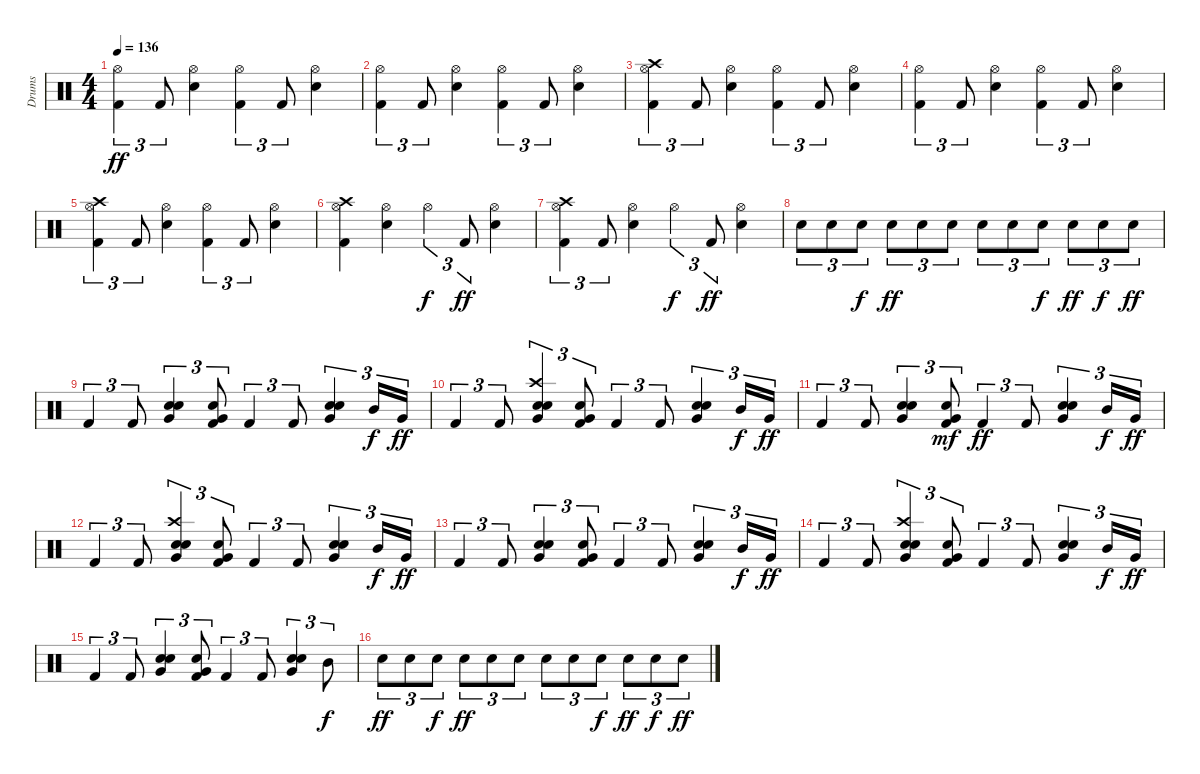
\track ("Drums" "Drums") {instrument percussion}
\staff {score}
\articulation defaults
\ts (4 4)
\tempo 136
\clef neutral
\ks c
("Kick (hit) 2" "Hi-Hat (open)").4{tu (3 2) dy ff} "Kick (hit) 2".8{tu (3 2)} ("Snare (hit) 2" "Hi-Hat (open)").4 ("Hi-Hat (open)" "Kick (hit) 2").4{tu (3 2)} "Kick (hit) 2".8{tu (3 2)} ("Snare (hit) 2" "Hi-Hat (open)").4 |
("Kick (hit) 2" "Hi-Hat (open)").4{tu (3 2)} "Kick (hit) 2".8{tu (3 2)} ("Snare (hit) 2" "Hi-Hat (open)").4 ("Hi-Hat (open)" "Kick (hit) 2").4{tu (3 2)} "Kick (hit) 2".8{tu (3 2)} ("Snare (hit) 2" "Hi-Hat (open)").4 |
("Kick (hit) 2" "Crash high (hit)" "Hi-Hat (open)").4{tu (3 2)} "Kick (hit) 2".8{tu (3 2)} ("Hi-Hat (open)" "Snare (hit) 2").4 ("Kick (hit) 2" "Hi-Hat (open)").4{tu (3 2)} "Kick (hit) 2".8{tu (3 2)} ("Hi-Hat (open)" "Snare (hit) 2").4 |
("Kick (hit) 2" "Hi-Hat (open)").4{tu (3 2)} "Kick (hit) 2".8{tu (3 2)} ("Snare (hit) 2" "Hi-Hat (open)").4 ("Hi-Hat (open)" "Kick (hit) 2").4{tu (3 2)} "Kick (hit) 2".8{tu (3 2)} ("Snare (hit) 2" "Hi-Hat (open)").4 |
("Kick (hit) 2" "Crash high (hit)" "Hi-Hat (open)").4{tu (3 2)} "Kick (hit) 2".8{tu (3 2)} ("Hi-Hat (open)" "Snare (hit) 2").4 ("Kick (hit) 2" "Hi-Hat (open)").4{tu (3 2)} "Kick (hit) 2".8{tu (3 2)} ("Hi-Hat (open)" "Snare (hit) 2").4 |
("Hi-Hat (open)" "Crash high (hit)" "Kick (hit) 2").4 ("Hi-Hat (open)" "Snare (hit) 2").4 "Hi-Hat (open)".4{tu (3 2) dy f} "Kick (hit) 2".8{tu (3 2) dy ff} ("Hi-Hat (open)" "Snare (hit) 2").4 |
("Hi-Hat (open)" "Crash high (hit)" "Kick (hit) 2").4{tu (3 2)} "Kick (hit) 2".8{tu (3 2)} ("Snare (hit) 2" "Hi-Hat (open)").4 "Hi-Hat (open)".4{tu (3 2) dy f} "Kick (hit) 2".8{tu (3 2) dy ff} ("Snare (hit) 2" "Hi-Hat (open)").4 |
"Snare (hit) 2".8{tu (3 2)} "Snare (hit) 2".8{tu (3 2)} "Snare (hit) 2".8{tu (3 2) dy f} "Snare (hit) 2".8{tu (3 2) dy ff} "Snare (hit) 2".8{tu (3 2)} "Snare (hit) 2".8{tu (3 2)} "Snare (hit) 2".8{tu (3 2)} "Snare (hit) 2".8{tu (3 2)} "Snare (hit) 2".8{tu (3 2) dy f} "Snare (hit) 2".8{tu (3 2) dy ff} "Snare (hit) 2".8{tu (3 2) dy f} "Snare (hit) 2".8{tu (3 2) dy ff} |
"Kick (hit) 2".4{tu (3 2)} "Kick (hit) 2".8{tu (3 2)} ("Snare (hit) 2" "Hand Clap (hit)" "Very Low Tom (hit)").4{tu (3 2)} ("Kick (hit) 2" "Hand Clap (hit)" "Very Low Tom (hit)").8{tu (3 2)} "Kick (hit) 2".4{tu (3 2)} "Kick (hit) 2".8{tu (3 2)} ("Snare (hit) 2" "Hand Clap (hit)" "Very Low Tom (hit)").4{tu (3 2)} "Mid Tom (hit)".16{tu (3 2) dy f} "Very Low Tom (hit)".16{tu (3 2) dy ff} |
"Kick (hit) 2".4{tu (3 2)} "Kick (hit) 2".8{tu (3 2)} ("Snare (hit) 2" "Very Low Tom (hit)" "Crash high (hit)" "Hand Clap (hit)").4{tu (3 2)} ("Kick (hit) 2" "Hand Clap (hit)" "Very Low Tom (hit)").8{tu (3 2)} "Kick (hit) 2".4{tu (3 2)} "Kick (hit) 2".8{tu (3 2)} ("Hand Clap (hit)" "Snare (hit) 2" "Very Low Tom (hit)").4{tu (3 2)} "Mid Tom (hit)".16{tu (3 2) dy f} "Very Low Tom (hit)".16{tu (3 2) dy ff} |
"Kick (hit) 2".4{tu (3 2)} "Kick (hit) 2".8{tu (3 2)} ("Very Low Tom (hit)" "Hand Clap (hit)" "Snare (hit) 2").4{tu (3 2)} ("Hand Clap (hit)" "Very Low Tom (hit)" "Kick (hit) 2").8{tu (3 2) dy mf} "Kick (hit) 2".4{tu (3 2) dy ff} "Kick (hit) 2".8{tu (3 2)} ("Snare (hit) 2" "Hand Clap (hit)" "Very Low Tom (hit)").4{tu (3 2)} "Mid Tom (hit)".16{tu (3 2) dy f} "Very Low Tom (hit)".16{tu (3 2) dy ff} |
"Kick (hit) 2".4{tu (3 2)} "Kick (hit) 2".8{tu (3 2)} ("Snare (hit) 2" "Crash high (hit)" "Very Low Tom (hit)" "Hand Clap (hit)").4{tu (3 2)} ("Hand Clap (hit)" "Kick (hit) 2" "Very Low Tom (hit)").8{tu (3 2)} "Kick (hit) 2".4{tu (3 2)} "Kick (hit) 2".8{tu (3 2)} ("Snare (hit) 2" "Hand Clap (hit)" "Very Low Tom (hit)").4{tu (3 2)} "Mid Tom (hit)".16{tu (3 2) dy f} "Very Low Tom (hit)".16{tu (3 2) dy ff} |
"Kick (hit) 2".4{tu (3 2)} "Kick (hit) 2".8{tu (3 2)} ("Snare (hit) 2" "Hand Clap (hit)" "Very Low Tom (hit)").4{tu (3 2)} ("Kick (hit) 2" "Hand Clap (hit)" "Very Low Tom (hit)").8{tu (3 2)} "Kick (hit) 2".4{tu (3 2)} "Kick (hit) 2".8{tu (3 2)} ("Snare (hit) 2" "Hand Clap (hit)" "Very Low Tom (hit)").4{tu (3 2)} "Mid Tom (hit)".16{tu (3 2) dy f} "Very Low Tom (hit)".16{tu (3 2) dy ff} |
"Kick (hit) 2".4{tu (3 2)} "Kick (hit) 2".8{tu (3 2)} ("Snare (hit) 2" "Very Low Tom (hit)" "Crash high (hit)" "Hand Clap (hit)").4{tu (3 2)} ("Kick (hit) 2" "Hand Clap (hit)" "Very Low Tom (hit)").8{tu (3 2)} "Kick (hit) 2".4{tu (3 2)} "Kick (hit) 2".8{tu (3 2)} ("Hand Clap (hit)" "Snare (hit) 2" "Very Low Tom (hit)").4{tu (3 2)} "Mid Tom (hit)".16{tu (3 2) dy f} "Very Low Tom (hit)".16{tu (3 2) dy ff} |
"Kick (hit) 2".4{tu (3 2)} "Kick (hit) 2".8{tu (3 2)} ("Hand Clap (hit)" "Snare (hit) 2" "Very Low Tom (hit)").4{tu (3 2)} ("Kick (hit) 2" "Very Low Tom (hit)" "Hand Clap (hit)").8{tu (3 2)} "Kick (hit) 2".4{tu (3 2)} "Kick (hit) 2".8{tu (3 2)} ("Snare (hit) 2" "Hand Clap (hit)" "Very Low Tom (hit)").4{tu (3 2)} "Mid Tom (hit)".8{tu (3 2) dy f} |
"Snare (hit) 2".8{tu (3 2) dy ff} "Snare (hit) 2".8{tu (3 2)} "Snare (hit) 2".8{tu (3 2) dy f} "Snare (hit) 2".8{tu (3 2) dy ff} "Snare (hit) 2".8{tu (3 2)} "Snare (hit) 2".8{tu (3 2)} "Snare (hit) 2".8{tu (3 2)} "Snare (hit) 2".8{tu (3 2)} "Snare (hit) 2".8{tu (3 2) dy f} "Snare (hit) 2".8{tu (3 2) dy ff} "Snare (hit) 2".8{tu (3 2) dy f} "Snare (hit) 2".8{tu (3 2) dy ff}
